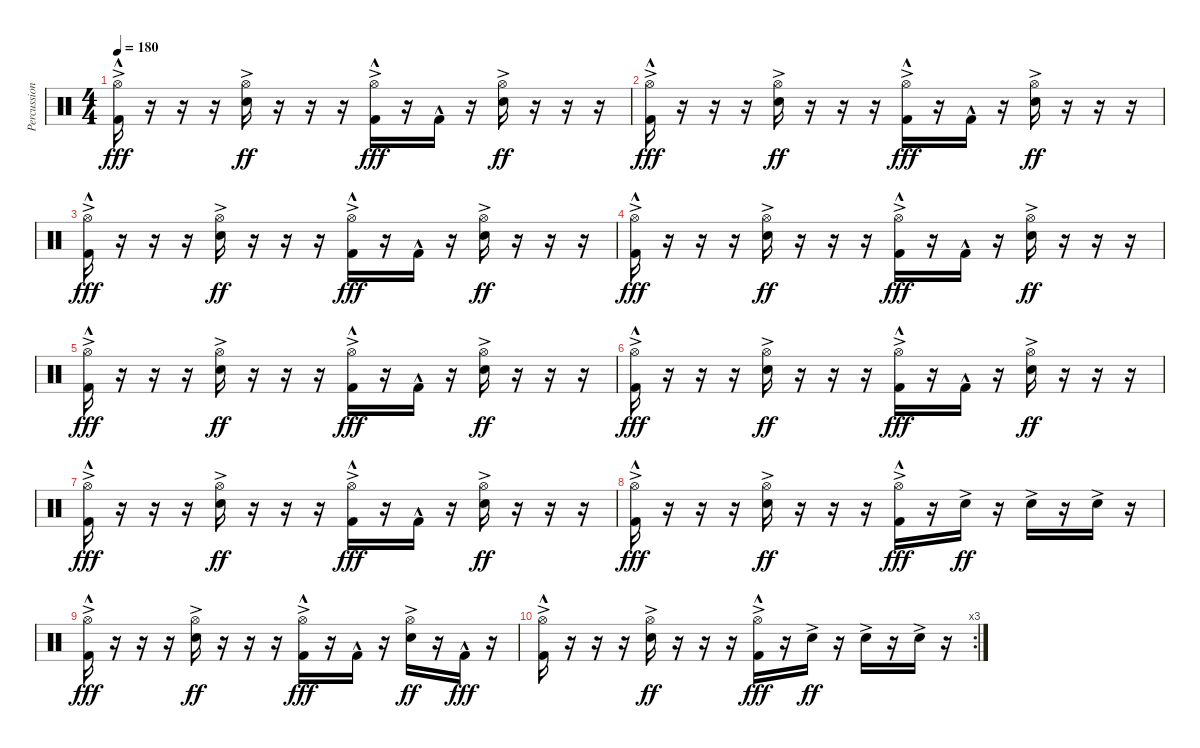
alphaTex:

\track ("Percussion" "Percussion") {instrument percussion}
\staff {score}
\articulation defaults
\ts (4 4)
\tempo 180
\clef neutral
\ks c
("Hi-Hat (open)"{ac} "Kick (hit) 2"{hac}).16{dy fff} r.16 r.16 r.16 ("Hi-Hat (open)"{ac} "Snare (hit) 2"{ac}).16{dy ff} r.16 r.16 r.16 ("Hi-Hat (open)"{ac} "Kick (hit) 2"{hac}).16{dy fff} r.16 "Kick (hit) 2"{hac}.16 r.16 ("Hi-Hat (open)"{ac} "Snare (hit) 2"{ac}).16{dy ff} r.16 r.16 r.16 |
("Hi-Hat (open)"{ac} "Kick (hit) 2"{hac}).16{dy fff} r.16 r.16 r.16 ("Hi-Hat (open)"{ac} "Snare (hit) 2"{ac}).16{dy ff} r.16 r.16 r.16 ("Hi-Hat (open)"{ac} "Kick (hit) 2"{hac}).16{dy fff} r.16 "Kick (hit) 2"{hac}.16 r.16 ("Hi-Hat (open)"{ac} "Snare (hit) 2"{ac}).16{dy ff} r.16 r.16 r.16 |
("Hi-Hat (open)"{ac} "Kick (hit) 2"{hac}).16{dy fff} r.16 r.16 r.16 ("Hi-Hat (open)"{ac} "Snare (hit) 2"{ac}).16{dy ff} r.16 r.16 r.16 ("Hi-Hat (open)"{ac} "Kick (hit) 2"{hac}).16{dy fff} r.16 "Kick (hit) 2"{hac}.16 r.16 ("Hi-Hat (open)"{ac} "Snare (hit) 2"{ac}).16{dy ff} r.16 r.16 r.16 |
("Hi-Hat (open)"{ac} "Kick (hit) 2"{hac}).16{dy fff} r.16 r.16 r.16 ("Hi-Hat (open)"{ac} "Snare (hit) 2"{ac}).16{dy ff} r.16 r.16 r.16 ("Hi-Hat (open)"{ac} "Kick (hit) 2"{hac}).16{dy fff} r.16 "Kick (hit) 2"{hac}.16 r.16 ("Hi-Hat (open)"{ac} "Snare (hit) 2"{ac}).16{dy ff} r.16 r.16 r.16 |
("Hi-Hat (open)"{ac} "Kick (hit) 2"{hac}).16{dy fff} r.16 r.16 r.16 ("Hi-Hat (open)"{ac} "Snare (hit) 2"{ac}).16{dy ff} r.16 r.16 r.16 ("Hi-Hat (open)"{ac} "Kick (hit) 2"{hac}).16{dy fff} r.16 "Kick (hit) 2"{hac}.16 r.16 ("Hi-Hat (open)"{ac} "Snare (hit) 2"{ac}).16{dy ff} r.16 r.16 r.16 |
("Hi-Hat (open)"{ac} "Kick (hit) 2"{hac}).16{dy fff} r.16 r.16 r.16 ("Hi-Hat (open)"{ac} "Snare (hit) 2"{ac}).16{dy ff} r.16 r.16 r.16 ("Hi-Hat (open)"{ac} "Kick (hit) 2"{hac}).16{dy fff} r.16 "Kick (hit) 2"{hac}.16 r.16 ("Hi-Hat (open)"{ac} "Snare (hit) 2"{ac}).16{dy ff} r.16 r.16 r.16 |
("Hi-Hat (open)"{ac} "Kick (hit) 2"{hac}).16{dy fff} r.16 r.16 r.16 ("Hi-Hat (open)"{ac} "Snare (hit) 2"{ac}).16{dy ff} r.16 r.16 r.16 ("Hi-Hat (open)"{ac} "Kick (hit) 2"{hac}).16{dy fff} r.16 "Kick (hit) 2"{hac}.16 r.16 ("Hi-Hat (open)"{ac} "Snare (hit) 2"{ac}).16{dy ff} r.16 r.16 r.16 |
("Hi-Hat (open)"{ac} "Kick (hit) 2"{hac}).16{dy fff} r.16 r.16 r.16 ("Hi-Hat (open)"{ac} "Snare (hit) 2"{ac}).16{dy ff} r.16 r.16 r.16 ("Hi-Hat (open)"{ac} "Kick (hit) 2"{hac}).16{dy fff} r.16 "Snare (hit) 2"{ac}.16{dy ff} r.16 "Snare (hit) 2"{ac}.16 r.16 "Snare (hit) 2"{ac}.16 r.16 |
("Hi-Hat (open)"{ac} "Kick (hit) 2"{hac}).16{dy fff} r.16 r.16 r.16 ("Hi-Hat (open)"{ac} "Snare (hit) 2"{ac}).16{dy ff} r.16 r.16 r.16 ("Hi-Hat (open)"{ac} "Kick (hit) 2"{hac}).16{dy fff} r.16 "Kick (hit) 2"{hac}.16 r.16 ("Hi-Hat (open)"{ac} "Snare (hit) 2"{ac}).16{dy ff} r.16 "Kick (hit) 2"{hac}.16{dy fff} r.16 |
\rc 3
("Hi-Hat (open)"{ac} "Kick (hit) 2"{hac}).16 r.16 r.16 r.16 ("Hi-Hat (open)"{ac} "Snare (hit) 2"{ac}).16{dy ff} r.16 r.16 r.16 ("Hi-Hat (open)"{ac} "Kick (hit) 2"{hac}).16{dy fff} r.16 "Snare (hit) 2"{ac}.16{dy ff} r.16 "Snare (hit) 2"{ac}.16 r.16 "Snare (hit) 2"{ac}.16 r.16
